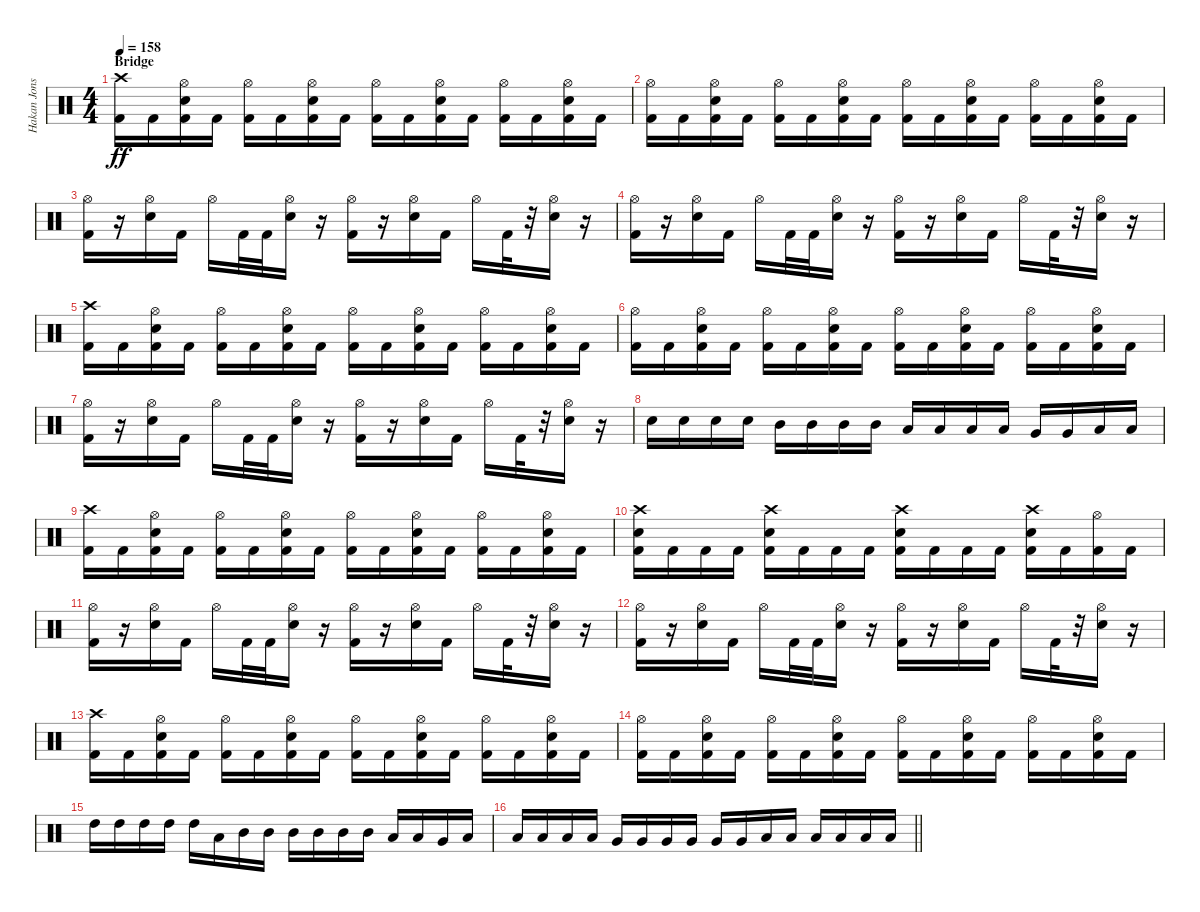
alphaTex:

\track ("Hakan Jonsson" "Hakan Jons") {instrument percussion}
\staff {score}
\articulation defaults
\ts (4 4)
\section ("" "Bridge")
\tempo 158
\clef neutral
\ks c
("Crash high (hit)" "Kick (hit) 2").16{dy ff} "Kick (hit) 2".16 ("Hi-Hat (open)" "Electric Snare (hit)" "Kick (hit) 2").16 "Kick (hit) 2".16 ("Hi-Hat (open)" "Kick (hit) 2").16 "Kick (hit) 2".16 ("Hi-Hat (open)" "Electric Snare (hit)" "Kick (hit) 2").16 "Kick (hit) 2".16 ("Hi-Hat (open)" "Kick (hit) 2").16 "Kick (hit) 2".16 ("Hi-Hat (open)" "Electric Snare (hit)" "Kick (hit) 2").16 "Kick (hit) 2".16 ("Hi-Hat (open)" "Kick (hit) 2").16 "Kick (hit) 2".16 ("Hi-Hat (open)" "Electric Snare (hit)" "Kick (hit) 2").16 "Kick (hit) 2".16 |
("Hi-Hat (open)" "Kick (hit) 2").16 "Kick (hit) 2".16 ("Hi-Hat (open)" "Electric Snare (hit)" "Kick (hit) 2").16 "Kick (hit) 2".16 ("Hi-Hat (open)" "Kick (hit) 2").16 "Kick (hit) 2".16 ("Hi-Hat (open)" "Electric Snare (hit)" "Kick (hit) 2").16 "Kick (hit) 2".16 ("Hi-Hat (open)" "Kick (hit) 2").16 "Kick (hit) 2".16 ("Hi-Hat (open)" "Electric Snare (hit)" "Kick (hit) 2").16 "Kick (hit) 2".16 ("Hi-Hat (open)" "Kick (hit) 2").16 "Kick (hit) 2".16 ("Hi-Hat (open)" "Electric Snare (hit)" "Kick (hit) 2").16 "Kick (hit) 2".16 |
("Hi-Hat (open)" "Kick (hit) 2").16 r.16 ("Hi-Hat (open)" "Electric Snare (hit)").16 "Kick (hit) 2".16 "Hi-Hat (open)".16 "Kick (hit) 2".32 "Kick (hit) 2".32 ("Hi-Hat (open)" "Electric Snare (hit)").16 r.16 ("Hi-Hat (open)" "Kick (hit) 2").16 r.16 ("Hi-Hat (open)" "Electric Snare (hit)").16 "Kick (hit) 2".16 "Hi-Hat (open)".16 "Kick (hit) 2".32 r.32 ("Hi-Hat (open)" "Electric Snare (hit)").16 r.16 |
("Hi-Hat (open)" "Kick (hit) 2").16 r.16 ("Hi-Hat (open)" "Electric Snare (hit)").16 "Kick (hit) 2".16 "Hi-Hat (open)".16 "Kick (hit) 2".32 "Kick (hit) 2".32 ("Hi-Hat (open)" "Electric Snare (hit)").16 r.16 ("Hi-Hat (open)" "Kick (hit) 2").16 r.16 ("Hi-Hat (open)" "Electric Snare (hit)").16 "Kick (hit) 2".16 "Hi-Hat (open)".16 "Kick (hit) 2".32 r.32 ("Hi-Hat (open)" "Electric Snare (hit)").16 r.16 |
("Crash high (hit)" "Kick (hit) 2").16 "Kick (hit) 2".16 ("Hi-Hat (open)" "Electric Snare (hit)" "Kick (hit) 2").16 "Kick (hit) 2".16 ("Hi-Hat (open)" "Kick (hit) 2").16 "Kick (hit) 2".16 ("Hi-Hat (open)" "Electric Snare (hit)" "Kick (hit) 2").16 "Kick (hit) 2".16 ("Hi-Hat (open)" "Kick (hit) 2").16 "Kick (hit) 2".16 ("Hi-Hat (open)" "Electric Snare (hit)" "Kick (hit) 2").16 "Kick (hit) 2".16 ("Hi-Hat (open)" "Kick (hit) 2").16 "Kick (hit) 2".16 ("Hi-Hat (open)" "Electric Snare (hit)" "Kick (hit) 2").16 "Kick (hit) 2".16 |
("Hi-Hat (open)" "Kick (hit) 2").16 "Kick (hit) 2".16 ("Hi-Hat (open)" "Electric Snare (hit)" "Kick (hit) 2").16 "Kick (hit) 2".16 ("Hi-Hat (open)" "Kick (hit) 2").16 "Kick (hit) 2".16 ("Hi-Hat (open)" "Electric Snare (hit)" "Kick (hit) 2").16 "Kick (hit) 2".16 ("Hi-Hat (open)" "Kick (hit) 2").16 "Kick (hit) 2".16 ("Hi-Hat (open)" "Electric Snare (hit)" "Kick (hit) 2").16 "Kick (hit) 2".16 ("Hi-Hat (open)" "Kick (hit) 2").16 "Kick (hit) 2".16 ("Hi-Hat (open)" "Electric Snare (hit)" "Kick (hit) 2").16 "Kick (hit) 2".16 |
("Hi-Hat (open)" "Kick (hit) 2").16 r.16 ("Hi-Hat (open)" "Electric Snare (hit)").16 "Kick (hit) 2".16 "Hi-Hat (open)".16 "Kick (hit) 2".32 "Kick (hit) 2".32 ("Hi-Hat (open)" "Electric Snare (hit)").16 r.16 ("Hi-Hat (open)" "Kick (hit) 2").16 r.16 ("Hi-Hat (open)" "Electric Snare (hit)").16 "Kick (hit) 2".16 "Hi-Hat (open)".16 "Kick (hit) 2".32 r.32 ("Hi-Hat (open)" "Electric Snare (hit)").16 r.16 |
"Electric Snare (hit)".16 "Electric Snare (hit)".16 "Electric Snare (hit)".16 "Electric Snare (hit)".16 "Mid Tom (hit)".16 "Mid Tom (hit)".16 "Mid Tom (hit)".16 "Mid Tom (hit)".16 "Low Tom (hit)".16 "Low Tom (hit)".16 "Low Tom (hit)".16 "Low Tom (hit)".16 "Very Low Tom (hit)".16 "Very Low Tom (hit)".16 "Low Floor Tom (hit)".16 "Low Floor Tom (hit)".16 |
("Crash high (hit)" "Kick (hit) 2").16 "Kick (hit) 2".16 ("Hi-Hat (open)" "Electric Snare (hit)" "Kick (hit) 2").16 "Kick (hit) 2".16 ("Hi-Hat (open)" "Kick (hit) 2").16 "Kick (hit) 2".16 ("Hi-Hat (open)" "Electric Snare (hit)" "Kick (hit) 2").16 "Kick (hit) 2".16 ("Hi-Hat (open)" "Kick (hit) 2").16 "Kick (hit) 2".16 ("Hi-Hat (open)" "Electric Snare (hit)" "Kick (hit) 2").16 "Kick (hit) 2".16 ("Hi-Hat (open)" "Kick (hit) 2").16 "Kick (hit) 2".16 ("Hi-Hat (open)" "Electric Snare (hit)" "Kick (hit) 2").16 "Kick (hit) 2".16 |
("Crash high (hit)" "Electric Snare (hit)" "Kick (hit) 2").16 "Kick (hit) 2".16 "Kick (hit) 2".16 "Kick (hit) 2".16 ("Crash high (hit)" "Electric Snare (hit)" "Kick (hit) 2").16 "Kick (hit) 2".16 "Kick (hit) 2".16 "Kick (hit) 2".16 ("Crash high (hit)" "Electric Snare (hit)" "Kick (hit) 2").16 "Kick (hit) 2".16 "Kick (hit) 2".16 "Kick (hit) 2".16 ("Crash high (hit)" "Electric Snare (hit)" "Kick (hit) 2").16 "Kick (hit) 2".16 ("Hi-Hat (open)" "Kick (hit) 2").16 "Kick (hit) 2".16 |
("Hi-Hat (open)" "Kick (hit) 2").16 r.16 ("Hi-Hat (open)" "Electric Snare (hit)").16 "Kick (hit) 2".16 "Hi-Hat (open)".16 "Kick (hit) 2".32 "Kick (hit) 2".32 ("Hi-Hat (open)" "Electric Snare (hit)").16 r.16 ("Hi-Hat (open)" "Kick (hit) 2").16 r.16 ("Hi-Hat (open)" "Electric Snare (hit)").16 "Kick (hit) 2".16 "Hi-Hat (open)".16 "Kick (hit) 2".32 r.32 ("Hi-Hat (open)" "Electric Snare (hit)").16 r.16 |
("Hi-Hat (open)" "Kick (hit) 2").16 r.16 ("Hi-Hat (open)" "Electric Snare (hit)").16 "Kick (hit) 2".16 "Hi-Hat (open)".16 "Kick (hit) 2".32 "Kick (hit) 2".32 ("Hi-Hat (open)" "Electric Snare (hit)").16 r.16 ("Hi-Hat (open)" "Kick (hit) 2").16 r.16 ("Hi-Hat (open)" "Electric Snare (hit)").16 "Kick (hit) 2".16 "Hi-Hat (open)".16 "Kick (hit) 2".32 r.32 ("Hi-Hat (open)" "Electric Snare (hit)").16 r.16 |
("Crash high (hit)" "Kick (hit) 2").16 "Kick (hit) 2".16 ("Hi-Hat (open)" "Electric Snare (hit)" "Kick (hit) 2").16 "Kick (hit) 2".16 ("Hi-Hat (open)" "Kick (hit) 2").16 "Kick (hit) 2".16 ("Hi-Hat (open)" "Electric Snare (hit)" "Kick (hit) 2").16 "Kick (hit) 2".16 ("Hi-Hat (open)" "Kick (hit) 2").16 "Kick (hit) 2".16 ("Hi-Hat (open)" "Electric Snare (hit)" "Kick (hit) 2").16 "Kick (hit) 2".16 ("Hi-Hat (open)" "Kick (hit) 2").16 "Kick (hit) 2".16 ("Hi-Hat (open)" "Electric Snare (hit)" "Kick (hit) 2").16 "Kick (hit) 2".16 |
("Hi-Hat (open)" "Kick (hit) 2").16 "Kick (hit) 2".16 ("Hi-Hat (open)" "Electric Snare (hit)" "Kick (hit) 2").16 "Kick (hit) 2".16 ("Hi-Hat (open)" "Kick (hit) 2").16 "Kick (hit) 2".16 ("Hi-Hat (open)" "Electric Snare (hit)" "Kick (hit) 2").16 "Kick (hit) 2".16 ("Hi-Hat (open)" "Kick (hit) 2").16 "Kick (hit) 2".16 ("Hi-Hat (open)" "Electric Snare (hit)" "Kick (hit) 2").16 "Kick (hit) 2".16 ("Hi-Hat (open)" "Kick (hit) 2").16 "Kick (hit) 2".16 ("Hi-Hat (open)" "Electric Snare (hit)" "Kick (hit) 2").16 "Kick (hit) 2".16 |
"High Tom (hit)".16 "High Tom (hit)".16 "High Tom (hit)".16 "High Tom (hit)".16 "High Tom (hit)".16 "Low Tom (hit)".16 "Mid Tom (hit)".16 "Mid Tom (hit)".16 "Mid Tom (hit)".16 "Mid Tom (hit)".16 "Mid Tom (hit)".16 "Mid Tom (hit)".16 "Low Tom (hit)".16 "Low Tom (hit)".16 "Very Low Tom (hit)".16 "Low Tom (hit)".16 |
\barLineRight lightlight "Low Tom (hit)".16 "Low Tom (hit)".16 "Low Tom (hit)".16 "Low Tom (hit)".16 "Very Low Tom (hit)".16 "Very Low Tom (hit)".16 "Very Low Tom (hit)".16 "Very Low Tom (hit)".16 "Very Low Tom (hit)".16 "Very Low Tom (hit)".16 "Low Floor Tom (hit)".16 "Low Floor Tom (hit)".16 "Low Floor Tom (hit)".16 "Low Floor Tom (hit)".16 "Low Floor Tom (hit)".16 "Low Floor Tom (hit)".16
